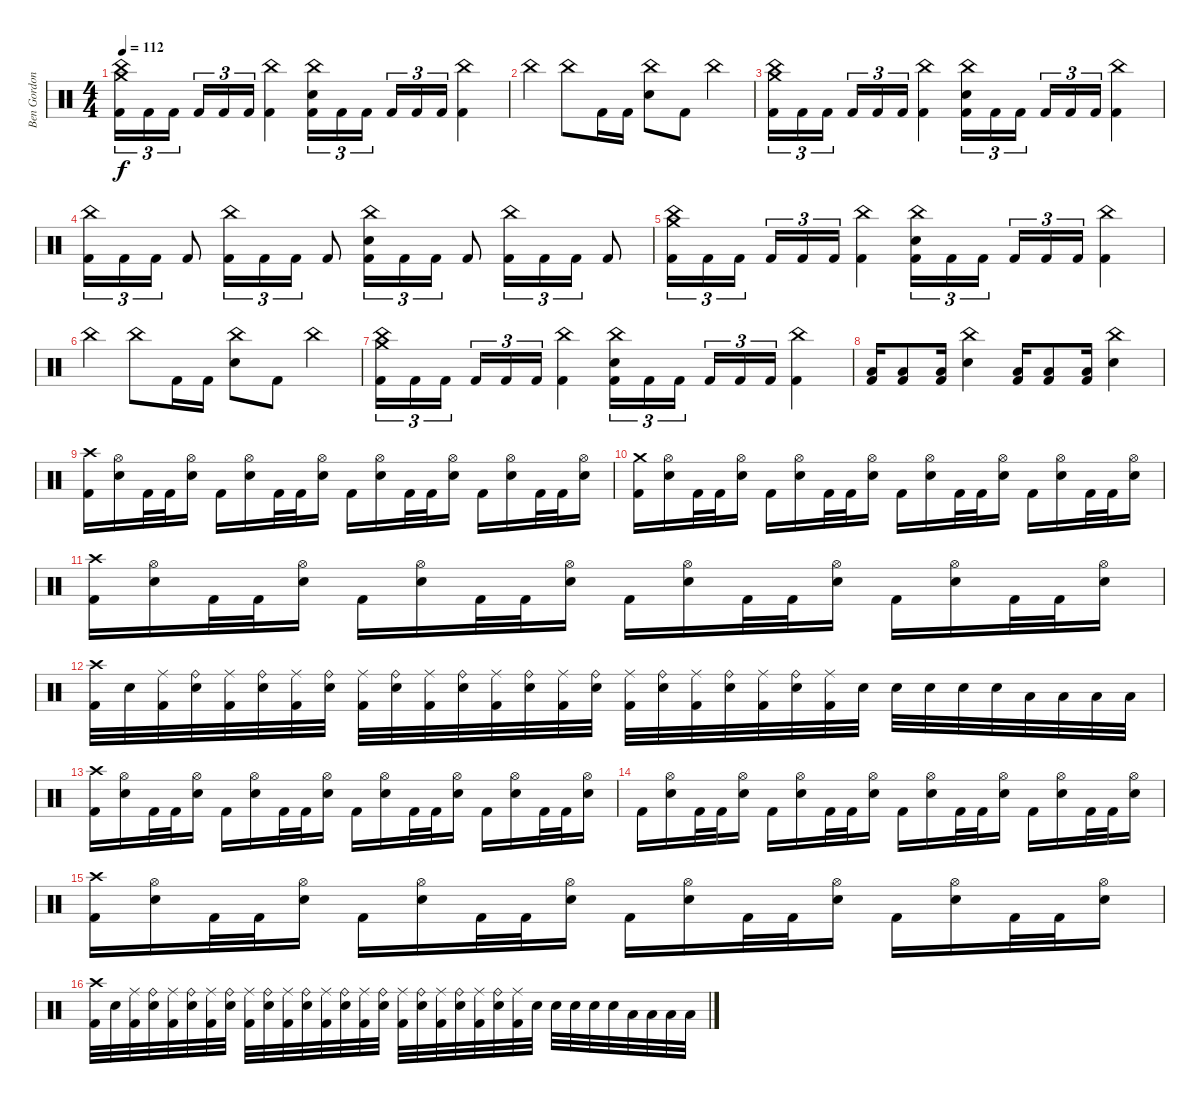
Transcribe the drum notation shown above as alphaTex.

\track ("Ben Gordon" "Ben Gordon") {instrument percussion}
\staff {score}
\articulation defaults
\ts (4 4)
\tempo 112
\clef neutral
\ks c
("Crash medium (hit)" "China (hit)" "Kick (hit) 2").16{tu (3 2) dy f} "Kick (hit) 2".16{tu (3 2)} "Kick (hit) 2".16{tu (3 2) beam splitsecondary} "Kick (hit) 2".16{tu (3 2)} "Kick (hit) 2".16{tu (3 2)} "Kick (hit) 2".16{tu (3 2)} ("China (hit)" "Kick (hit) 2").4 ("China (hit)" "Electric Snare (hit)" "Kick (hit) 2").16{tu (3 2)} "Kick (hit) 2".16{tu (3 2)} "Kick (hit) 2".16{tu (3 2) beam splitsecondary} "Kick (hit) 2".16{tu (3 2)} "Kick (hit) 2".16{tu (3 2)} "Kick (hit) 2".16{tu (3 2)} ("China (hit)" "Kick (hit) 2").4 |
"China (hit)".4 "China (hit)".8 "Kick (hit) 2".16 "Kick (hit) 2".16 ("China (hit)" "Electric Snare (hit)").8 "Kick (hit) 2".8 "China (hit)".4 |
("Crash medium (hit)" "China (hit)" "Kick (hit) 2").16{tu (3 2)} "Kick (hit) 2".16{tu (3 2)} "Kick (hit) 2".16{tu (3 2) beam splitsecondary} "Kick (hit) 2".16{tu (3 2)} "Kick (hit) 2".16{tu (3 2)} "Kick (hit) 2".16{tu (3 2)} ("China (hit)" "Kick (hit) 2").4 ("China (hit)" "Electric Snare (hit)" "Kick (hit) 2").16{tu (3 2)} "Kick (hit) 2".16{tu (3 2)} "Kick (hit) 2".16{tu (3 2) beam splitsecondary} "Kick (hit) 2".16{tu (3 2)} "Kick (hit) 2".16{tu (3 2)} "Kick (hit) 2".16{tu (3 2)} ("China (hit)" "Kick (hit) 2").4 |
("China (hit)" "Kick (hit) 2").16{tu (3 2)} "Kick (hit) 2".16{tu (3 2)} "Kick (hit) 2".16{tu (3 2)} "Kick (hit) 2".8 ("China (hit)" "Kick (hit) 2").16{tu (3 2)} "Kick (hit) 2".16{tu (3 2)} "Kick (hit) 2".16{tu (3 2)} "Kick (hit) 2".8 ("China (hit)" "Electric Snare (hit)" "Kick (hit) 2").16{tu (3 2)} "Kick (hit) 2".16{tu (3 2)} "Kick (hit) 2".16{tu (3 2)} "Kick (hit) 2".8 ("China (hit)" "Kick (hit) 2").16{tu (3 2)} "Kick (hit) 2".16{tu (3 2)} "Kick (hit) 2".16{tu (3 2)} "Kick (hit) 2".8 |
("Crash medium (hit)" "China (hit)" "Kick (hit) 2").16{tu (3 2)} "Kick (hit) 2".16{tu (3 2)} "Kick (hit) 2".16{tu (3 2) beam splitsecondary} "Kick (hit) 2".16{tu (3 2)} "Kick (hit) 2".16{tu (3 2)} "Kick (hit) 2".16{tu (3 2)} ("China (hit)" "Kick (hit) 2").4 ("China (hit)" "Electric Snare (hit)" "Kick (hit) 2").16{tu (3 2)} "Kick (hit) 2".16{tu (3 2)} "Kick (hit) 2".16{tu (3 2) beam splitsecondary} "Kick (hit) 2".16{tu (3 2)} "Kick (hit) 2".16{tu (3 2)} "Kick (hit) 2".16{tu (3 2)} ("China (hit)" "Kick (hit) 2").4 |
"China (hit)".4 "China (hit)".8 "Kick (hit) 2".16 "Kick (hit) 2".16 ("China (hit)" "Electric Snare (hit)").8 "Kick (hit) 2".8 "China (hit)".4 |
("Crash medium (hit)" "China (hit)" "Kick (hit) 2").16{tu (3 2)} "Kick (hit) 2".16{tu (3 2)} "Kick (hit) 2".16{tu (3 2) beam splitsecondary} "Kick (hit) 2".16{tu (3 2)} "Kick (hit) 2".16{tu (3 2)} "Kick (hit) 2".16{tu (3 2)} ("China (hit)" "Kick (hit) 2").4 ("China (hit)" "Electric Snare (hit)" "Kick (hit) 2").16{tu (3 2)} "Kick (hit) 2".16{tu (3 2)} "Kick (hit) 2".16{tu (3 2) beam splitsecondary} "Kick (hit) 2".16{tu (3 2)} "Kick (hit) 2".16{tu (3 2)} "Kick (hit) 2".16{tu (3 2)} ("China (hit)" "Kick (hit) 2").4 |
("Low Floor Tom (hit)" "Kick (hit) 2").16 ("Low Floor Tom (hit)" "Kick (hit) 2").8 ("Low Floor Tom (hit)" "Kick (hit) 2").16 ("China (hit)" "Electric Snare (hit)").4 ("Low Floor Tom (hit)" "Kick (hit) 2").16 ("Low Floor Tom (hit)" "Kick (hit) 2").8 ("Low Floor Tom (hit)" "Kick (hit) 2").16 ("China (hit)" "Electric Snare (hit)").4 |
("Crash high (hit)" "Kick (hit) 2").16 ("Hi-Hat (open)" "Electric Snare (hit)").16 "Kick (hit) 2".32 "Kick (hit) 2".32 ("Hi-Hat (open)" "Electric Snare (hit)").16 "Kick (hit) 2".16 ("Hi-Hat (open)" "Electric Snare (hit)").16 "Kick (hit) 2".32 "Kick (hit) 2".32 ("Hi-Hat (open)" "Electric Snare (hit)").16 "Kick (hit) 2".16 ("Hi-Hat (open)" "Electric Snare (hit)").16 "Kick (hit) 2".32 "Kick (hit) 2".32 ("Hi-Hat (open)" "Electric Snare (hit)").16 "Kick (hit) 2".16 ("Hi-Hat (open)" "Electric Snare (hit)").16 "Kick (hit) 2".32 "Kick (hit) 2".32 ("Hi-Hat (open)" "Electric Snare (hit)").16 |
("Crash medium (hit)" "Kick (hit) 2").16 ("Hi-Hat (open)" "Electric Snare (hit)").16 "Kick (hit) 2".32 "Kick (hit) 2".32 ("Hi-Hat (open)" "Electric Snare (hit)").16 "Kick (hit) 2".16 ("Hi-Hat (open)" "Electric Snare (hit)").16 "Kick (hit) 2".32 "Kick (hit) 2".32 ("Hi-Hat (open)" "Electric Snare (hit)").16 "Kick (hit) 2".16 ("Hi-Hat (open)" "Electric Snare (hit)").16 "Kick (hit) 2".32 "Kick (hit) 2".32 ("Hi-Hat (open)" "Electric Snare (hit)").16 "Kick (hit) 2".16 ("Hi-Hat (open)" "Electric Snare (hit)").16 "Kick (hit) 2".32 "Kick (hit) 2".32 ("Hi-Hat (open)" "Electric Snare (hit)").16 |
("Crash high (hit)" "Kick (hit) 2").16 ("Hi-Hat (open)" "Electric Snare (hit)").16 "Kick (hit) 2".32 "Kick (hit) 2".32 ("Hi-Hat (open)" "Electric Snare (hit)").16 "Kick (hit) 2".16 ("Hi-Hat (open)" "Electric Snare (hit)").16 "Kick (hit) 2".32 "Kick (hit) 2".32 ("Hi-Hat (open)" "Electric Snare (hit)").16 "Kick (hit) 2".16 ("Hi-Hat (open)" "Electric Snare (hit)").16 "Kick (hit) 2".32 "Kick (hit) 2".32 ("Hi-Hat (open)" "Electric Snare (hit)").16 "Kick (hit) 2".16 ("Hi-Hat (open)" "Electric Snare (hit)").16 "Kick (hit) 2".32 "Kick (hit) 2".32 ("Hi-Hat (open)" "Electric Snare (hit)").16 |
("Crash high (hit)" "Kick (hit) 2").32 "Electric Snare (hit)".32 ("Ride (middle)" "Kick (hit) 2").32 ("Ride (bell)" "Electric Snare (hit)").32 ("Ride (middle)" "Kick (hit) 2").32 ("Ride (bell)" "Electric Snare (hit)").32 ("Ride (middle)" "Kick (hit) 2").32 ("Ride (bell)" "Electric Snare (hit)").32 ("Ride (middle)" "Kick (hit) 2").32 ("Ride (bell)" "Electric Snare (hit)").32 ("Ride (middle)" "Kick (hit) 2").32 ("Ride (bell)" "Electric Snare (hit)").32 ("Ride (middle)" "Kick (hit) 2").32 ("Ride (bell)" "Electric Snare (hit)").32 ("Ride (middle)" "Kick (hit) 2").32 ("Ride (bell)" "Electric Snare (hit)").32 ("Ride (middle)" "Kick (hit) 2").32 ("Ride (bell)" "Electric Snare (hit)").32 ("Ride (middle)" "Kick (hit) 2").32 ("Ride (bell)" "Electric Snare (hit)").32 ("Ride (middle)" "Kick (hit) 2").32 ("Ride (bell)" "Electric Snare (hit)").32 ("Ride (middle)" "Kick (hit) 2").32 "Electric Snare (hit)".32 "Electric Snare (hit)".32 "Electric Snare (hit)".32 "Electric Snare (hit)".32 "Electric Snare (hit)".32 "Low Tom (hit)".32 "Low Tom (hit)".32 "Low Tom (hit)".32 "Low Tom (hit)".32 |
("Crash high (hit)" "Kick (hit) 2").16 ("Hi-Hat (open)" "Electric Snare (hit)").16 "Kick (hit) 2".32 "Kick (hit) 2".32 ("Hi-Hat (open)" "Electric Snare (hit)").16 "Kick (hit) 2".16 ("Hi-Hat (open)" "Electric Snare (hit)").16 "Kick (hit) 2".32 "Kick (hit) 2".32 ("Hi-Hat (open)" "Electric Snare (hit)").16 "Kick (hit) 2".16 ("Hi-Hat (open)" "Electric Snare (hit)").16 "Kick (hit) 2".32 "Kick (hit) 2".32 ("Hi-Hat (open)" "Electric Snare (hit)").16 "Kick (hit) 2".16 ("Hi-Hat (open)" "Electric Snare (hit)").16 "Kick (hit) 2".32 "Kick (hit) 2".32 ("Hi-Hat (open)" "Electric Snare (hit)").16 |
"Kick (hit) 2".16 ("Hi-Hat (open)" "Electric Snare (hit)").16 "Kick (hit) 2".32 "Kick (hit) 2".32 ("Hi-Hat (open)" "Electric Snare (hit)").16 "Kick (hit) 2".16 ("Hi-Hat (open)" "Electric Snare (hit)").16 "Kick (hit) 2".32 "Kick (hit) 2".32 ("Hi-Hat (open)" "Electric Snare (hit)").16 "Kick (hit) 2".16 ("Hi-Hat (open)" "Electric Snare (hit)").16 "Kick (hit) 2".32 "Kick (hit) 2".32 ("Hi-Hat (open)" "Electric Snare (hit)").16 "Kick (hit) 2".16 ("Hi-Hat (open)" "Electric Snare (hit)").16 "Kick (hit) 2".32 "Kick (hit) 2".32 ("Hi-Hat (open)" "Electric Snare (hit)").16 |
("Crash high (hit)" "Kick (hit) 2").16 ("Hi-Hat (open)" "Electric Snare (hit)").16 "Kick (hit) 2".32 "Kick (hit) 2".32 ("Hi-Hat (open)" "Electric Snare (hit)").16 "Kick (hit) 2".16 ("Hi-Hat (open)" "Electric Snare (hit)").16 "Kick (hit) 2".32 "Kick (hit) 2".32 ("Hi-Hat (open)" "Electric Snare (hit)").16 "Kick (hit) 2".16 ("Hi-Hat (open)" "Electric Snare (hit)").16 "Kick (hit) 2".32 "Kick (hit) 2".32 ("Hi-Hat (open)" "Electric Snare (hit)").16 "Kick (hit) 2".16 ("Hi-Hat (open)" "Electric Snare (hit)").16 "Kick (hit) 2".32 "Kick (hit) 2".32 ("Hi-Hat (open)" "Electric Snare (hit)").16 |
("Crash high (hit)" "Kick (hit) 2").32 "Electric Snare (hit)".32 ("Ride (middle)" "Kick (hit) 2").32 ("Ride (bell)" "Electric Snare (hit)").32 ("Ride (middle)" "Kick (hit) 2").32 ("Ride (bell)" "Electric Snare (hit)").32 ("Ride (middle)" "Kick (hit) 2").32 ("Ride (bell)" "Electric Snare (hit)").32 ("Ride (middle)" "Kick (hit) 2").32 ("Ride (bell)" "Electric Snare (hit)").32 ("Ride (middle)" "Kick (hit) 2").32 ("Ride (bell)" "Electric Snare (hit)").32 ("Ride (middle)" "Kick (hit) 2").32 ("Ride (bell)" "Electric Snare (hit)").32 ("Ride (middle)" "Kick (hit) 2").32 ("Ride (bell)" "Electric Snare (hit)").32 ("Ride (middle)" "Kick (hit) 2").32 ("Ride (bell)" "Electric Snare (hit)").32 ("Ride (middle)" "Kick (hit) 2").32 ("Ride (bell)" "Electric Snare (hit)").32 ("Ride (middle)" "Kick (hit) 2").32 ("Ride (bell)" "Electric Snare (hit)").32 ("Ride (middle)" "Kick (hit) 2").32 "Electric Snare (hit)".32 "Electric Snare (hit)".32 "Electric Snare (hit)".32 "Electric Snare (hit)".32 "Electric Snare (hit)".32 "Low Tom (hit)".32 "Low Tom (hit)".32 "Low Tom (hit)".32 "Low Tom (hit)".32
